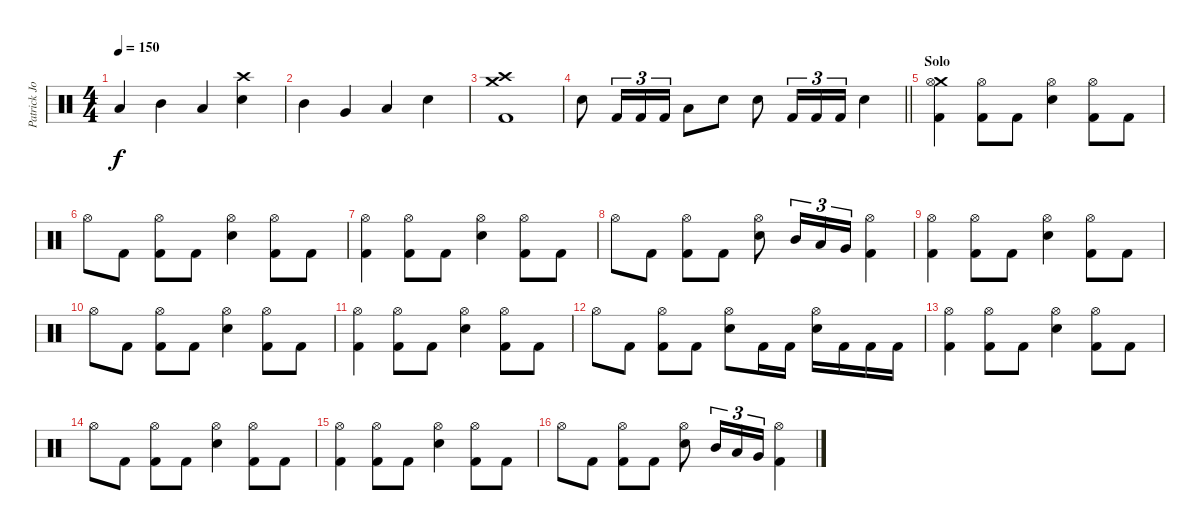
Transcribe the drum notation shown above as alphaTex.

\track ("Patrick Johansson" "Patrick Jo") {instrument percussion}
\staff {score}
\articulation defaults
\ts (4 4)
\tempo 150
\clef neutral
\ks c "Low Tom (hit)".4{dy f} "Mid Tom (hit)".4 "Low Floor Tom (hit)".4
("Crash high (hit)" "Snare (hit) 2").4 |
"Mid Tom (hit)".4 "Very Low Tom (hit)".4 "Low Tom (hit)".4 "Snare (hit) 2".4 |
("Crash medium (hit)" "Crash high (hit)" "Kick (hit) 2").1 |
\barLineRight lightlight "Snare (hit) 2".8 "Kick (hit) 2".16{tu (3 2)} "Kick (hit) 2".16{tu (3 2)} "Kick (hit) 2".16{tu (3 2)} "Low Tom (hit)".8 "Snare (hit) 2".8 "Snare (hit) 2".8 "Kick (hit) 2".16{tu (3 2)} "Kick (hit) 2".16{tu (3 2)} "Kick (hit) 2".16{tu (3 2)} "Snare (hit) 2".4
|
\section ("" "Solo")
("Crash medium (hit)" "Hi-Hat (open)" "Kick (hit) 2").4 ("Hi-Hat (open)" "Kick (hit) 2").8 "Kick (hit) 2".8 ("Hi-Hat (open)" "Snare (hit) 2").4 ("Hi-Hat (open)" "Kick (hit) 2").8 "Kick (hit) 2".8 |
"Hi-Hat (open)".8 "Kick (hit) 2".8 ("Hi-Hat (open)" "Kick (hit) 2").8 "Kick (hit) 2".8 ("Hi-Hat (open)" "Snare (hit) 2").4 ("Hi-Hat (open)" "Kick (hit) 2").8 "Kick (hit) 2".8 |
("Hi-Hat (open)" "Kick (hit) 2").4 ("Hi-Hat (open)" "Kick (hit) 2").8 "Kick (hit) 2".8 ("Hi-Hat (open)" "Snare (hit) 2").4 ("Hi-Hat (open)" "Kick (hit) 2").8 "Kick (hit) 2".8 |
"Hi-Hat (open)".8 "Kick (hit) 2".8 ("Hi-Hat (open)" "Kick (hit) 2").8 "Kick (hit) 2".8 ("Hi-Hat (open)" "Snare (hit) 2").8 "Mid Tom (hit)".16{tu (3 2)} "Low Tom (hit)".16{tu (3 2)} "Very Low Tom (hit)".16{tu (3 2)} ("Hi-Hat (open)" "Kick (hit) 2").4 |
("Hi-Hat (open)" "Kick (hit) 2").4 ("Hi-Hat (open)" "Kick (hit) 2").8 "Kick (hit) 2".8 ("Hi-Hat (open)" "Snare (hit) 2").4 ("Hi-Hat (open)" "Kick (hit) 2").8 "Kick (hit) 2".8 |
"Hi-Hat (open)".8 "Kick (hit) 2".8 ("Hi-Hat (open)" "Kick (hit) 2").8 "Kick (hit) 2".8 ("Hi-Hat (open)" "Snare (hit) 2").4 ("Hi-Hat (open)" "Kick (hit) 2").8 "Kick (hit) 2".8 |
("Hi-Hat (open)" "Kick (hit) 2").4 ("Hi-Hat (open)" "Kick (hit) 2").8 "Kick (hit) 2".8 ("Hi-Hat (open)" "Snare (hit) 2").4 ("Hi-Hat (open)" "Kick (hit) 2").8 "Kick (hit) 2".8 |
"Hi-Hat (open)".8 "Kick (hit) 2".8 ("Hi-Hat (open)" "Kick (hit) 2").8 "Kick (hit) 2".8 ("Hi-Hat (open)" "Snare (hit) 2").8 "Kick (hit) 2".16 "Kick (hit) 2".16 ("Hi-Hat (open)" "Snare (hit) 2").16 "Kick (hit) 2".16 "Kick (hit) 2".16 "Kick (hit) 2".16 |
("Hi-Hat (open)" "Kick (hit) 2").4 ("Hi-Hat (open)" "Kick (hit) 2").8 "Kick (hit) 2".8 ("Hi-Hat (open)" "Snare (hit) 2").4 ("Hi-Hat (open)" "Kick (hit) 2").8 "Kick (hit) 2".8 |
"Hi-Hat (open)".8 "Kick (hit) 2".8 ("Hi-Hat (open)" "Kick (hit) 2").8 "Kick (hit) 2".8 ("Hi-Hat (open)" "Snare (hit) 2").4 ("Hi-Hat (open)" "Kick (hit) 2").8 "Kick (hit) 2".8 |
("Hi-Hat (open)" "Kick (hit) 2").4 ("Hi-Hat (open)" "Kick (hit) 2").8 "Kick (hit) 2".8 ("Hi-Hat (open)" "Snare (hit) 2").4 ("Hi-Hat (open)" "Kick (hit) 2").8 "Kick (hit) 2".8 |
"Hi-Hat (open)".8 "Kick (hit) 2".8 ("Hi-Hat (open)" "Kick (hit) 2").8 "Kick (hit) 2".8 ("Hi-Hat (open)" "Snare (hit) 2").8 "Mid Tom (hit)".16{tu (3 2)} "Low Tom (hit)".16{tu (3 2)} "Very Low Tom (hit)".16{tu (3 2)} ("Hi-Hat (open)" "Kick (hit) 2").4
